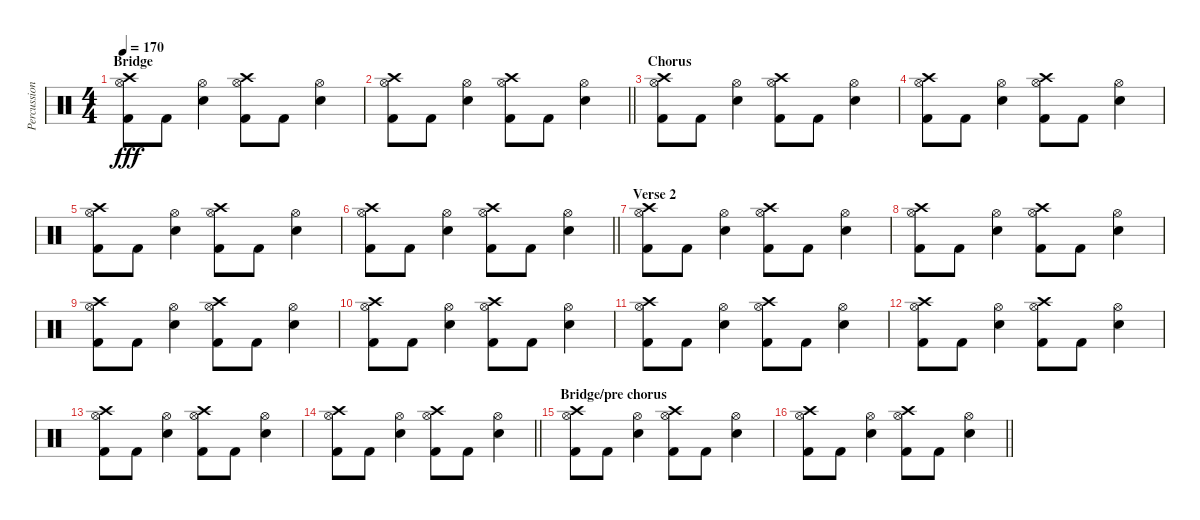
\track ("Percussion" "Percussion") {instrument percussion}
\staff {score}
\articulation defaults
\ts (4 4)
\section ("" "Bridge")
\tempo 170
\clef neutral
\ks c
("Crash high (hit)" "Hi-Hat (open)" "Kick (hit) 2").8{dy fff} "Kick (hit) 2".8 ("Hi-Hat (open)" "Electric Snare (hit)").4 ("Crash high (hit)" "Hi-Hat (open)" "Kick (hit) 2").8 "Kick (hit) 2".8 ("Hi-Hat (open)" "Electric Snare (hit)").4 |
\barLineRight lightlight
("Crash high (hit)" "Hi-Hat (open)" "Kick (hit) 2").8 "Kick (hit) 2".8 ("Hi-Hat (open)" "Electric Snare (hit)").4 ("Crash high (hit)" "Hi-Hat (open)" "Kick (hit) 2").8 "Kick (hit) 2".8 ("Hi-Hat (open)" "Electric Snare (hit)").4 |
\section ("" "Chorus")
("Crash high (hit)" "Hi-Hat (open)" "Kick (hit) 2").8 "Kick (hit) 2".8 ("Hi-Hat (open)" "Electric Snare (hit)").4 ("Crash high (hit)" "Hi-Hat (open)" "Kick (hit) 2").8 "Kick (hit) 2".8 ("Hi-Hat (open)" "Electric Snare (hit)").4 |
("Crash high (hit)" "Hi-Hat (open)" "Kick (hit) 2").8 "Kick (hit) 2".8 ("Hi-Hat (open)" "Electric Snare (hit)").4 ("Crash high (hit)" "Hi-Hat (open)" "Kick (hit) 2").8 "Kick (hit) 2".8 ("Hi-Hat (open)" "Electric Snare (hit)").4 |
("Crash high (hit)" "Hi-Hat (open)" "Kick (hit) 2").8 "Kick (hit) 2".8 ("Hi-Hat (open)" "Electric Snare (hit)").4 ("Crash high (hit)" "Hi-Hat (open)" "Kick (hit) 2").8 "Kick (hit) 2".8 ("Hi-Hat (open)" "Electric Snare (hit)").4 |
\barLineRight lightlight
("Crash high (hit)" "Hi-Hat (open)" "Kick (hit) 2").8 "Kick (hit) 2".8 ("Hi-Hat (open)" "Electric Snare (hit)").4 ("Crash high (hit)" "Hi-Hat (open)" "Kick (hit) 2").8 "Kick (hit) 2".8 ("Hi-Hat (open)" "Electric Snare (hit)").4 |
\section ("" "Verse 2")
("Crash high (hit)" "Hi-Hat (open)" "Kick (hit) 2").8 "Kick (hit) 2".8 ("Hi-Hat (open)" "Electric Snare (hit)").4 ("Crash high (hit)" "Hi-Hat (open)" "Kick (hit) 2").8 "Kick (hit) 2".8 ("Hi-Hat (open)" "Electric Snare (hit)").4 |
("Crash high (hit)" "Hi-Hat (open)" "Kick (hit) 2").8 "Kick (hit) 2".8 ("Hi-Hat (open)" "Electric Snare (hit)").4 ("Crash high (hit)" "Hi-Hat (open)" "Kick (hit) 2").8 "Kick (hit) 2".8 ("Hi-Hat (open)" "Electric Snare (hit)").4 |
("Crash high (hit)" "Hi-Hat (open)" "Kick (hit) 2").8 "Kick (hit) 2".8 ("Hi-Hat (open)" "Electric Snare (hit)").4 ("Crash high (hit)" "Hi-Hat (open)" "Kick (hit) 2").8 "Kick (hit) 2".8 ("Hi-Hat (open)" "Electric Snare (hit)").4 |
("Crash high (hit)" "Hi-Hat (open)" "Kick (hit) 2").8 "Kick (hit) 2".8 ("Hi-Hat (open)" "Electric Snare (hit)").4 ("Crash high (hit)" "Hi-Hat (open)" "Kick (hit) 2").8 "Kick (hit) 2".8 ("Hi-Hat (open)" "Electric Snare (hit)").4 |
("Crash high (hit)" "Hi-Hat (open)" "Kick (hit) 2").8 "Kick (hit) 2".8 ("Hi-Hat (open)" "Electric Snare (hit)").4 ("Crash high (hit)" "Hi-Hat (open)" "Kick (hit) 2").8 "Kick (hit) 2".8 ("Hi-Hat (open)" "Electric Snare (hit)").4 |
("Crash high (hit)" "Hi-Hat (open)" "Kick (hit) 2").8 "Kick (hit) 2".8 ("Hi-Hat (open)" "Electric Snare (hit)").4 ("Crash high (hit)" "Hi-Hat (open)" "Kick (hit) 2").8 "Kick (hit) 2".8 ("Hi-Hat (open)" "Electric Snare (hit)").4 |
("Crash high (hit)" "Hi-Hat (open)" "Kick (hit) 2").8 "Kick (hit) 2".8 ("Hi-Hat (open)" "Electric Snare (hit)").4 ("Crash high (hit)" "Hi-Hat (open)" "Kick (hit) 2").8 "Kick (hit) 2".8 ("Hi-Hat (open)" "Electric Snare (hit)").4 |
\barLineRight lightlight
("Crash high (hit)" "Hi-Hat (open)" "Kick (hit) 2").8 "Kick (hit) 2".8 ("Hi-Hat (open)" "Electric Snare (hit)").4 ("Crash high (hit)" "Hi-Hat (open)" "Kick (hit) 2").8 "Kick (hit) 2".8 ("Hi-Hat (open)" "Electric Snare (hit)").4 |
\section ("" "Bridge/pre chorus ")
("Crash high (hit)" "Hi-Hat (open)" "Kick (hit) 2").8 "Kick (hit) 2".8 ("Hi-Hat (open)" "Electric Snare (hit)").4 ("Crash high (hit)" "Hi-Hat (open)" "Kick (hit) 2").8 "Kick (hit) 2".8 ("Hi-Hat (open)" "Electric Snare (hit)").4 |
\barLineRight lightlight
("Crash high (hit)" "Hi-Hat (open)" "Kick (hit) 2").8 "Kick (hit) 2".8 ("Hi-Hat (open)" "Electric Snare (hit)").4 ("Crash high (hit)" "Hi-Hat (open)" "Kick (hit) 2").8 "Kick (hit) 2".8 ("Hi-Hat (open)" "Electric Snare (hit)").4
